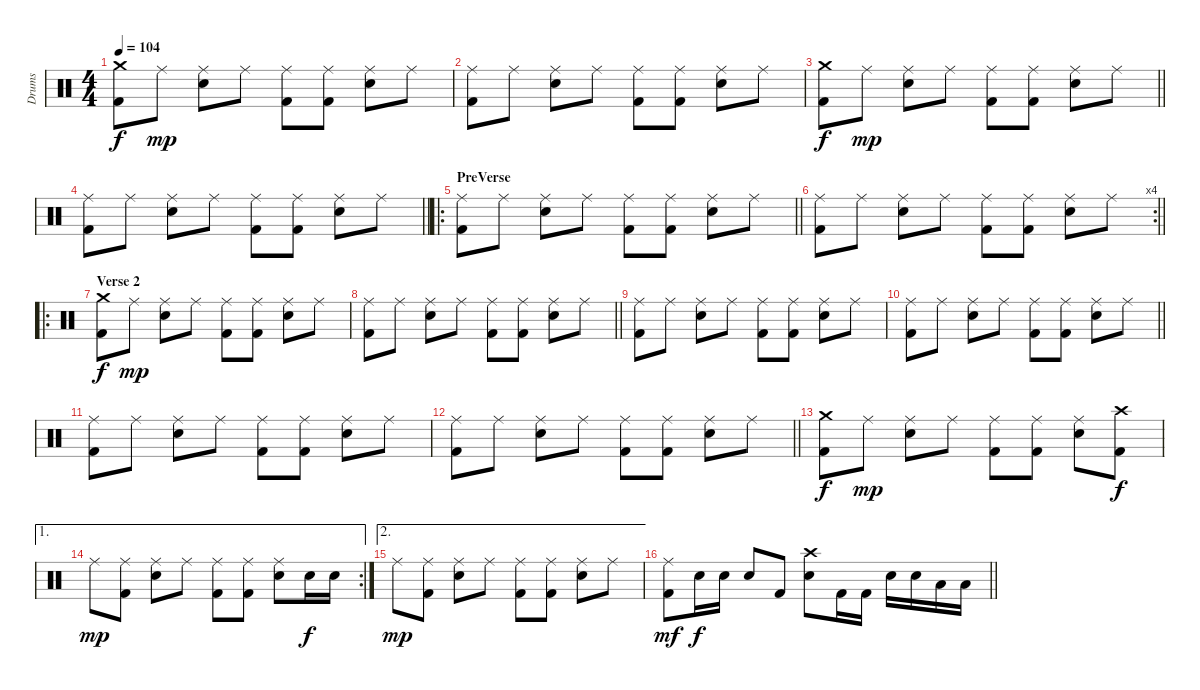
\track ("Drums" "Drums") {instrument percussion}
\staff {score}
\articulation defaults
\ts (4 4)
\tempo 104
\clef neutral
\ks c
("Kick (hit) 2" "Crash medium (hit)").8{dy f} "Ride (middle)".8{dy mp} ("Electric Snare (hit)" "Ride (middle)").8 "Ride (middle)".8 ("Kick (hit) 2" "Ride (middle)").8 ("Kick (hit) 2" "Ride (middle)").8 ("Electric Snare (hit)" "Ride (middle)").8 "Ride (middle)".8 |
("Kick (hit) 2" "Ride (middle)").8 "Ride (middle)".8 ("Electric Snare (hit)" "Ride (middle)").8 "Ride (middle)".8 ("Kick (hit) 2" "Ride (middle)").8 ("Kick (hit) 2" "Ride (middle)").8 ("Electric Snare (hit)" "Ride (middle)").8 "Ride (middle)".8 |
\barLineRight lightlight
("Kick (hit) 2" "Crash medium (hit)").8{dy f} "Ride (middle)".8{dy mp} ("Electric Snare (hit)" "Ride (middle)").8 "Ride (middle)".8 ("Kick (hit) 2" "Ride (middle)").8 ("Kick (hit) 2" "Ride (middle)").8 ("Electric Snare (hit)" "Ride (middle)").8 "Ride (middle)".8 |
\barLineRight lightlight
("Kick (hit) 2" "Ride (middle)").8 "Ride (middle)".8 ("Electric Snare (hit)" "Ride (middle)").8 "Ride (middle)".8 ("Kick (hit) 2" "Ride (middle)").8 ("Kick (hit) 2" "Ride (middle)").8 ("Electric Snare (hit)" "Ride (middle)").8 "Ride (middle)".8 |
\ro
\section ("" "PreVerse")
\barLineRight lightlight
("Kick (hit) 2" "Ride (middle)").8 "Ride (middle)".8 ("Electric Snare (hit)" "Ride (middle)").8 "Ride (middle)".8 ("Kick (hit) 2" "Ride (middle)").8 ("Kick (hit) 2" "Ride (middle)").8 ("Electric Snare (hit)" "Ride (middle)").8 "Ride (middle)".8 |
\rc 4
\barLineRight lightlight
("Kick (hit) 2" "Ride (middle)").8 "Ride (middle)".8 ("Electric Snare (hit)" "Ride (middle)").8 "Ride (middle)".8 ("Kick (hit) 2" "Ride (middle)").8 ("Kick (hit) 2" "Ride (middle)").8 ("Electric Snare (hit)" "Ride (middle)").8 "Ride (middle)".8 |
\ro
\section ("" "Verse 2")
("Kick (hit) 2" "Crash medium (hit)").8{dy f} "Ride (middle)".8{dy mp} ("Electric Snare (hit)" "Ride (middle)").8 "Ride (middle)".8 ("Kick (hit) 2" "Ride (middle)").8 ("Kick (hit) 2" "Ride (middle)").8 ("Electric Snare (hit)" "Ride (middle)").8 "Ride (middle)".8 |
\barLineRight lightlight
("Kick (hit) 2" "Ride (middle)").8 "Ride (middle)".8 ("Electric Snare (hit)" "Ride (middle)").8 "Ride (middle)".8 ("Kick (hit) 2" "Ride (middle)").8 ("Kick (hit) 2" "Ride (middle)").8 ("Electric Snare (hit)" "Ride (middle)").8 "Ride (middle)".8 |
("Kick (hit) 2" "Ride (middle)").8 "Ride (middle)".8 ("Electric Snare (hit)" "Ride (middle)").8 "Ride (middle)".8 ("Kick (hit) 2" "Ride (middle)").8 ("Kick (hit) 2" "Ride (middle)").8 ("Electric Snare (hit)" "Ride (middle)").8 "Ride (middle)".8 |
\barLineRight lightlight
("Kick (hit) 2" "Ride (middle)").8 "Ride (middle)".8 ("Electric Snare (hit)" "Ride (middle)").8 "Ride (middle)".8 ("Kick (hit) 2" "Ride (middle)").8 ("Kick (hit) 2" "Ride (middle)").8 ("Electric Snare (hit)" "Ride (middle)").8 "Ride (middle)".8 |
("Kick (hit) 2" "Ride (middle)").8 "Ride (middle)".8 ("Electric Snare (hit)" "Ride (middle)").8 "Ride (middle)".8 ("Kick (hit) 2" "Ride (middle)").8 ("Kick (hit) 2" "Ride (middle)").8 ("Electric Snare (hit)" "Ride (middle)").8 "Ride (middle)".8 |
\barLineRight lightlight
("Kick (hit) 2" "Ride (middle)").8 "Ride (middle)".8 ("Electric Snare (hit)" "Ride (middle)").8 "Ride (middle)".8 ("Kick (hit) 2" "Ride (middle)").8 ("Kick (hit) 2" "Ride (middle)").8 ("Electric Snare (hit)" "Ride (middle)").8 "Ride (middle)".8 |
("Kick (hit) 2" "Crash medium (hit)").8{dy f} "Ride (middle)".8{dy mp} ("Electric Snare (hit)" "Ride (middle)").8 "Ride (middle)".8 ("Kick (hit) 2" "Ride (middle)").8 ("Kick (hit) 2" "Ride (middle)").8 ("Electric Snare (hit)" "Ride (middle)").8 ("Kick (hit) 2" "Crash high (hit)").8{dy f} |
\ae 1
\rc 2 "Ride (middle)".8{dy mp}
("Kick (hit) 2" "Ride (middle)").8 ("Electric Snare (hit)" "Ride (middle)").8 "Ride (middle)".8 ("Kick (hit) 2" "Ride (middle)").8 ("Kick (hit) 2" "Ride (middle)").8 ("Electric Snare (hit)" "Ride (middle)").8 "Electric Snare (hit)".16{dy f} "Electric Snare (hit)".16 |
\ae 2 "Ride (middle)".8{dy mp}
("Kick (hit) 2" "Ride (middle)").8 ("Electric Snare (hit)" "Ride (middle)").8 "Ride (middle)".8 ("Kick (hit) 2" "Ride (middle)").8 ("Kick (hit) 2" "Ride (middle)").8 ("Electric Snare (hit)" "Ride (middle)").8 "Ride (middle)".8 |
\barLineRight lightlight
("Kick (hit) 2" "Ride (middle)").8{dy mf} "Electric Snare (hit)".16{dy f} "Electric Snare (hit)".16 "Electric Snare (hit)".8 "Kick (hit) 2".8 ("Electric Snare (hit)" "Crash high (hit)").8 "Kick (hit) 2".16 "Kick (hit) 2".16 "Electric Snare (hit)".16 "Electric Snare (hit)".16 "Low Tom (hit)".16 "Low Tom (hit)".16
